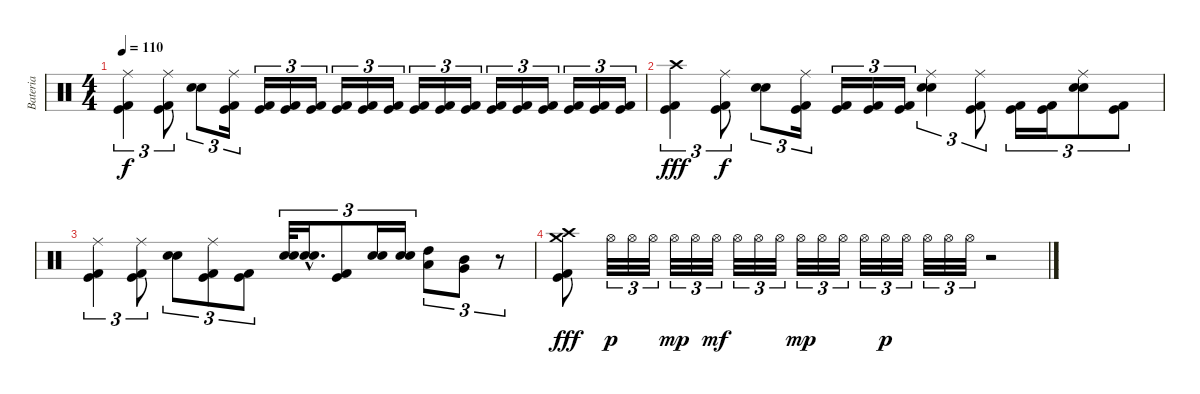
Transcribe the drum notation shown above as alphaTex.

\track ("Bateria" "Bateria") {instrument percussion}
\staff {score}
\articulation defaults
\ts (4 4)
\tempo 110
\clef neutral
\ks c
("Ride (middle)" "Kick (hit) 2" "Kick (hit)").4{tu (3 2) dy f} ("Ride (middle)" "Kick (hit) 2" "Kick (hit)").8{tu (3 2)} ("Electric Snare (hit)" "Snare (hit) 2").8{tu (3 2)} ("Ride (middle)" "Kick (hit) 2" "Kick (hit)").16{tu (3 2)} ("Kick (hit) 2" "Kick (hit)").16{tu (3 2)} ("Kick (hit) 2" "Kick (hit)").16{tu (3 2)} ("Kick (hit) 2" "Kick (hit)").16{tu (3 2)} ("Kick (hit) 2" "Kick (hit)").16{tu (3 2)} ("Kick (hit) 2" "Kick (hit)").16{tu (3 2)} ("Kick (hit) 2" "Kick (hit)").16{tu (3 2)} ("Kick (hit) 2" "Kick (hit)").16{tu (3 2)} ("Kick (hit) 2" "Kick (hit)").16{tu (3 2)} ("Kick (hit) 2" "Kick (hit)").16{tu (3 2)} ("Kick (hit) 2" "Kick (hit)").16{tu (3 2)} ("Kick (hit) 2" "Kick (hit)").16{tu (3 2)} ("Kick (hit) 2" "Kick (hit)").16{tu (3 2)} ("Kick (hit) 2" "Kick (hit)").16{tu (3 2)} ("Kick (hit) 2" "Kick (hit)").16{tu (3 2)} ("Kick (hit) 2" "Kick (hit)").16{tu (3 2)} |
("Crash high (hit)" "Kick (hit) 2" "Kick (hit)").4{tu (3 2) dy fff} ("Ride (middle)" "Kick (hit) 2" "Kick (hit)").8{tu (3 2) dy f} ("Electric Snare (hit)" "Snare (hit) 2").8{tu (3 2)} ("Ride (middle)" "Kick (hit) 2" "Kick (hit)").16{tu (3 2)} ("Kick (hit) 2" "Kick (hit)").16{tu (3 2)} ("Kick (hit) 2" "Kick (hit)").16{tu (3 2)} ("Kick (hit) 2" "Kick (hit)").16{tu (3 2)} ("Ride (middle)" "Electric Snare (hit)" "Snare (hit) 2").4{tu (3 2)} ("Ride (middle)" "Kick (hit) 2" "Kick (hit)").8{tu (3 2)} ("Kick (hit) 2" "Kick (hit)").16{tu (3 2)} ("Kick (hit) 2" "Kick (hit)").16{tu (3 2)} ("Ride (middle)" "Electric Snare (hit)" "Snare (hit) 2").8{tu (3 2)} ("Kick (hit) 2" "Kick (hit)").8{tu (3 2)} |
("Ride (middle)" "Kick (hit) 2" "Kick (hit)").4{tu (3 2)} ("Ride (middle)" "Kick (hit) 2" "Kick (hit)").8{tu (3 2)} ("Electric Snare (hit)" "Snare (hit) 2").8{tu (3 2)} ("Ride (middle)" "Kick (hit) 2" "Kick (hit)").8{tu (3 2)} ("Kick (hit) 2" "Kick (hit)").8{tu (3 2)} ("Electric Snare (hit)" "Snare (hit) 2").32{tu (3 2)} ("Electric Snare (hit)"{hac} "Snare (hit) 2"{hac}).16{d tu (3 2)} ("Kick (hit) 2" "Kick (hit)").8{tu (3 2)} ("Electric Snare (hit)" "Snare (hit) 2").16{tu (3 2)} ("Electric Snare (hit)" "Snare (hit) 2").16{tu (3 2)} ("High Tom (hit)" "Low Tom (hit)").8{tu (3 2)} ("Mid Tom (hit)" "Very Low Tom (hit)").8{tu (3 2)} r.8{tu (3 2)} |
("Crash high (hit)" "Crash medium (hit)" "Kick (hit) 2" "Kick (hit)").8{dy fff} "Hi-Hat (open)".32{tu (3 2) dy p} "Hi-Hat (open)".32{tu (3 2)} "Hi-Hat (open)".32{tu (3 2)} "Hi-Hat (open)".32{tu (3 2) dy mp} "Hi-Hat (open)".32{tu (3 2)} "Hi-Hat (open)".32{tu (3 2) dy mf} "Hi-Hat (open)".32{tu (3 2)} "Hi-Hat (open)".32{tu (3 2)} "Hi-Hat (open)".32{tu (3 2)} "Hi-Hat (open)".32{tu (3 2) dy mp} "Hi-Hat (open)".32{tu (3 2)} "Hi-Hat (open)".32{tu (3 2)} "Hi-Hat (open)".32{tu (3 2)} "Hi-Hat (open)".32{tu (3 2) dy p} "Hi-Hat (open)".32{tu (3 2)} "Hi-Hat (open)".32{tu (3 2)} "Hi-Hat (open)".32{tu (3 2)} "Hi-Hat (open)".32{tu (3 2)} r.2
